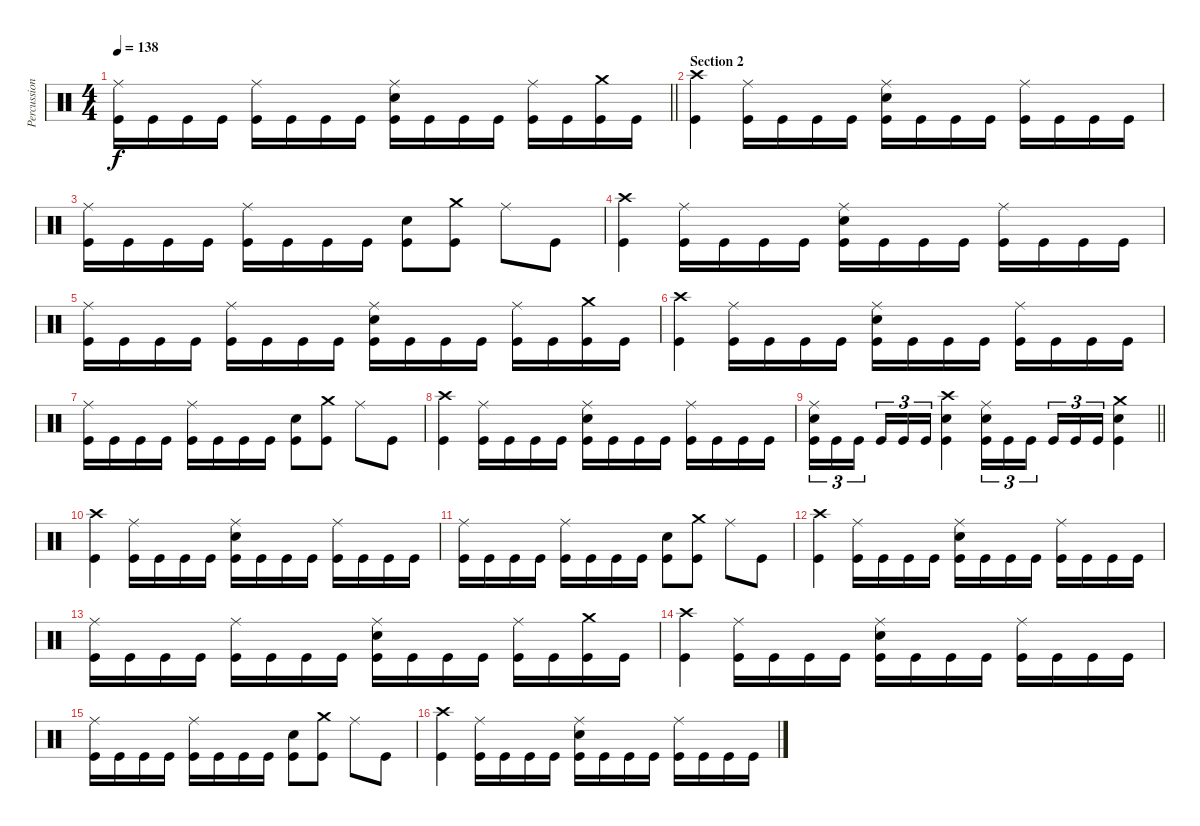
\track ("Percussion" "Percussion") {instrument percussion}
\staff {score}
\articulation defaults
\ts (4 4)
\tempo 138
\clef neutral
\barLineRight lightlight
\ks c
("Ride (middle)" "Kick (hit)").16{dy f} "Kick (hit)".16 "Kick (hit)".16 "Kick (hit)".16 ("Ride (middle)" "Kick (hit)").16 "Kick (hit)".16 "Kick (hit)".16 "Kick (hit)".16 ("Ride (middle)" "Electric Snare (hit)" "Kick (hit)").16 "Kick (hit)".16 "Kick (hit)".16 "Kick (hit)".16 ("Ride (middle)" "Kick (hit)").16 "Kick (hit)".16 ("Crash medium (hit)" "Kick (hit)").16 "Kick (hit)".16 |
\section ("" "Section 2")
("Crash high (hit)" "Kick (hit)").4 ("Ride (middle)" "Kick (hit)").16 "Kick (hit)".16 "Kick (hit)".16 "Kick (hit)".16 ("Ride (middle)" "Electric Snare (hit)" "Kick (hit)").16 "Kick (hit)".16 "Kick (hit)".16 "Kick (hit)".16 ("Ride (middle)" "Kick (hit)").16 "Kick (hit)".16 "Kick (hit)".16 "Kick (hit)".16 |
("Ride (middle)" "Kick (hit)").16 "Kick (hit)".16 "Kick (hit)".16 "Kick (hit)".16 ("Ride (middle)" "Kick (hit)").16 "Kick (hit)".16 "Kick (hit)".16 "Kick (hit)".16 ("Electric Snare (hit)" "Kick (hit)").8 ("Crash medium (hit)" "Kick (hit)").8 "Ride (middle)".8 "Kick (hit)".8 |
("Crash high (hit)" "Kick (hit)").4 ("Ride (middle)" "Kick (hit)").16 "Kick (hit)".16 "Kick (hit)".16 "Kick (hit)".16 ("Ride (middle)" "Electric Snare (hit)" "Kick (hit)").16 "Kick (hit)".16 "Kick (hit)".16 "Kick (hit)".16 ("Ride (middle)" "Kick (hit)").16 "Kick (hit)".16 "Kick (hit)".16 "Kick (hit)".16 |
("Ride (middle)" "Kick (hit)").16 "Kick (hit)".16 "Kick (hit)".16 "Kick (hit)".16 ("Ride (middle)" "Kick (hit)").16 "Kick (hit)".16 "Kick (hit)".16 "Kick (hit)".16 ("Ride (middle)" "Electric Snare (hit)" "Kick (hit)").16 "Kick (hit)".16 "Kick (hit)".16 "Kick (hit)".16 ("Ride (middle)" "Kick (hit)").16 "Kick (hit)".16 ("Crash medium (hit)" "Kick (hit)").16 "Kick (hit)".16 |
("Crash high (hit)" "Kick (hit)").4 ("Ride (middle)" "Kick (hit)").16 "Kick (hit)".16 "Kick (hit)".16 "Kick (hit)".16 ("Ride (middle)" "Electric Snare (hit)" "Kick (hit)").16 "Kick (hit)".16 "Kick (hit)".16 "Kick (hit)".16 ("Ride (middle)" "Kick (hit)").16 "Kick (hit)".16 "Kick (hit)".16 "Kick (hit)".16 |
("Ride (middle)" "Kick (hit)").16 "Kick (hit)".16 "Kick (hit)".16 "Kick (hit)".16 ("Ride (middle)" "Kick (hit)").16 "Kick (hit)".16 "Kick (hit)".16 "Kick (hit)".16 ("Electric Snare (hit)" "Kick (hit)").8 ("Crash medium (hit)" "Kick (hit)").8 "Ride (middle)".8 "Kick (hit)".8 |
("Crash high (hit)" "Kick (hit)").4 ("Ride (middle)" "Kick (hit)").16 "Kick (hit)".16 "Kick (hit)".16 "Kick (hit)".16 ("Ride (middle)" "Electric Snare (hit)" "Kick (hit)").16 "Kick (hit)".16 "Kick (hit)".16 "Kick (hit)".16 ("Ride (middle)" "Kick (hit)").16 "Kick (hit)".16 "Kick (hit)".16 "Kick (hit)".16 |
\barLineRight lightlight
("Ride (middle)" "Electric Snare (hit)" "Kick (hit)").16{tu (3 2)} "Kick (hit)".16{tu (3 2)} "Kick (hit)".16{tu (3 2) beam splitsecondary} "Kick (hit)".16{tu (3 2)} "Kick (hit)".16{tu (3 2)} "Kick (hit)".16{tu (3 2)} ("Crash high (hit)" "Electric Snare (hit)" "Kick (hit)").4 ("Ride (middle)" "Electric Snare (hit)" "Kick (hit)").16{tu (3 2)} "Kick (hit)".16{tu (3 2)} "Kick (hit)".16{tu (3 2) beam splitsecondary} "Kick (hit)".16{tu (3 2)} "Kick (hit)".16{tu (3 2)} "Kick (hit)".16{tu (3 2)} ("Crash medium (hit)" "Electric Snare (hit)" "Kick (hit)").4 |
("Crash high (hit)" "Kick (hit)").4 ("Ride (middle)" "Kick (hit)").16 "Kick (hit)".16 "Kick (hit)".16 "Kick (hit)".16 ("Ride (middle)" "Electric Snare (hit)" "Kick (hit)").16 "Kick (hit)".16 "Kick (hit)".16 "Kick (hit)".16 ("Ride (middle)" "Kick (hit)").16 "Kick (hit)".16 "Kick (hit)".16 "Kick (hit)".16 |
("Ride (middle)" "Kick (hit)").16 "Kick (hit)".16 "Kick (hit)".16 "Kick (hit)".16 ("Ride (middle)" "Kick (hit)").16 "Kick (hit)".16 "Kick (hit)".16 "Kick (hit)".16 ("Electric Snare (hit)" "Kick (hit)").8 ("Crash medium (hit)" "Kick (hit)").8 "Ride (middle)".8 "Kick (hit)".8 |
("Crash high (hit)" "Kick (hit)").4 ("Ride (middle)" "Kick (hit)").16 "Kick (hit)".16 "Kick (hit)".16 "Kick (hit)".16 ("Ride (middle)" "Electric Snare (hit)" "Kick (hit)").16 "Kick (hit)".16 "Kick (hit)".16 "Kick (hit)".16 ("Ride (middle)" "Kick (hit)").16 "Kick (hit)".16 "Kick (hit)".16 "Kick (hit)".16 |
("Ride (middle)" "Kick (hit)").16 "Kick (hit)".16 "Kick (hit)".16 "Kick (hit)".16 ("Ride (middle)" "Kick (hit)").16 "Kick (hit)".16 "Kick (hit)".16 "Kick (hit)".16 ("Ride (middle)" "Electric Snare (hit)" "Kick (hit)").16 "Kick (hit)".16 "Kick (hit)".16 "Kick (hit)".16 ("Ride (middle)" "Kick (hit)").16 "Kick (hit)".16 ("Crash medium (hit)" "Kick (hit)").16 "Kick (hit)".16 |
("Crash high (hit)" "Kick (hit)").4 ("Ride (middle)" "Kick (hit)").16 "Kick (hit)".16 "Kick (hit)".16 "Kick (hit)".16 ("Ride (middle)" "Electric Snare (hit)" "Kick (hit)").16 "Kick (hit)".16 "Kick (hit)".16 "Kick (hit)".16 ("Ride (middle)" "Kick (hit)").16 "Kick (hit)".16 "Kick (hit)".16 "Kick (hit)".16 |
("Ride (middle)" "Kick (hit)").16 "Kick (hit)".16 "Kick (hit)".16 "Kick (hit)".16 ("Ride (middle)" "Kick (hit)").16 "Kick (hit)".16 "Kick (hit)".16 "Kick (hit)".16 ("Electric Snare (hit)" "Kick (hit)").8 ("Crash medium (hit)" "Kick (hit)").8 "Ride (middle)".8 "Kick (hit)".8 |
("Crash high (hit)" "Kick (hit)").4 ("Ride (middle)" "Kick (hit)").16 "Kick (hit)".16 "Kick (hit)".16 "Kick (hit)".16 ("Ride (middle)" "Electric Snare (hit)" "Kick (hit)").16 "Kick (hit)".16 "Kick (hit)".16 "Kick (hit)".16 ("Ride (middle)" "Kick (hit)").16 "Kick (hit)".16 "Kick (hit)".16 "Kick (hit)".16
